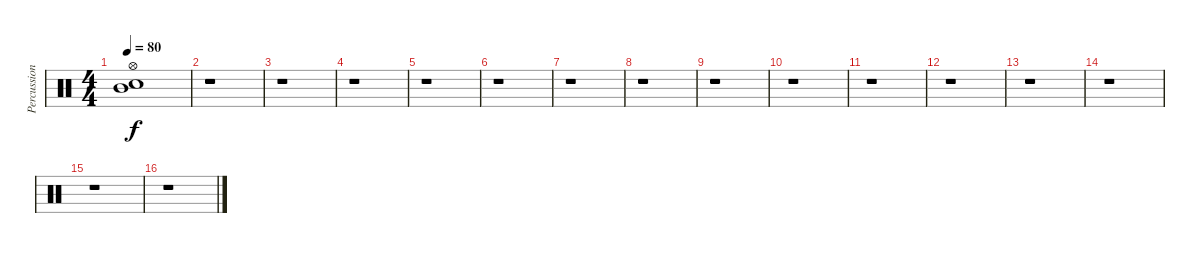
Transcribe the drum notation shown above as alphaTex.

\track ("Percussions" "Percussion") {instrument percussion}
\staff {score}
\articulation defaults
\ts (4 4)
\tempo 80
\clef neutral
\ks c
("Mid Tom (hit)" "Electric Snare (hit)" "Hi-Hat (open)").1{dy f} |
r.1 |
r.1 |
r.1 |
r.1 |
r.1 |
r.1 |
r.1 |
r.1 |
r.1 |
r.1 |
r.1 |
r.1 |
r.1 |
r.1 |
r.1
